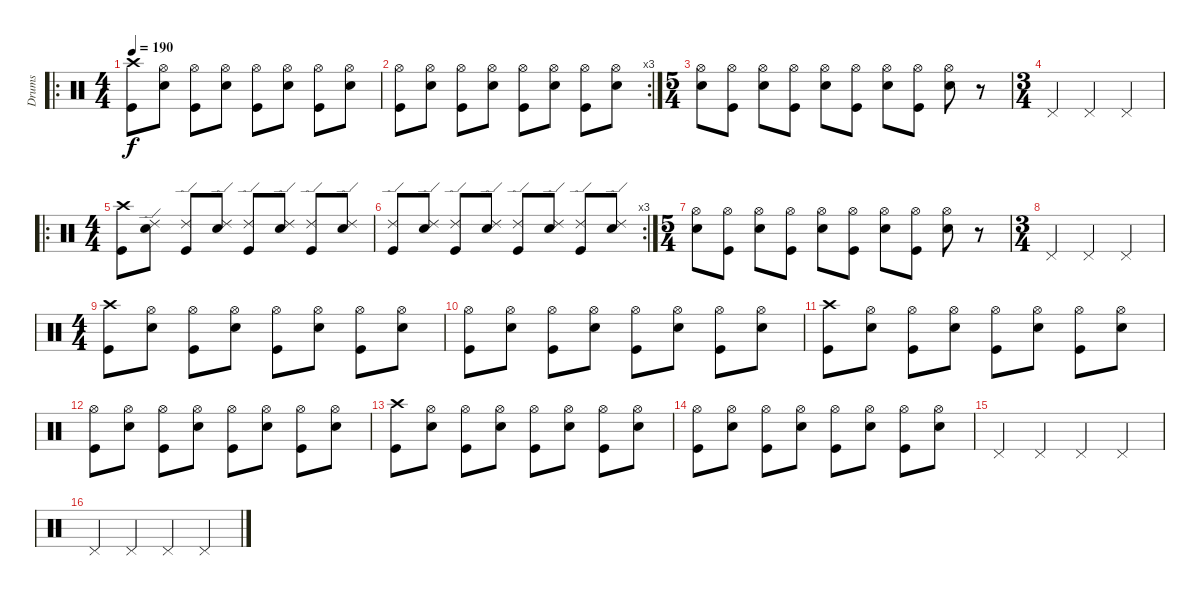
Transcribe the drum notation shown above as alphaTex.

\track ("Drums" "Drums") {instrument percussion}
\staff {score}
\articulation defaults
\ro
\ts (4 4)
\tempo 190
\clef neutral
\ks c
("Crash high (hit)" "Kick (hit)").8{dy f} ("Hi-Hat (open)" "Electric Snare (hit)").8 ("Hi-Hat (open)" "Kick (hit)").8 ("Hi-Hat (open)" "Electric Snare (hit)").8 ("Hi-Hat (open)" "Kick (hit)").8 ("Hi-Hat (open)" "Electric Snare (hit)").8 ("Hi-Hat (open)" "Kick (hit)").8 ("Hi-Hat (open)" "Electric Snare (hit)").8 |
\rc 3
("Hi-Hat (open)" "Kick (hit)").8 ("Hi-Hat (open)" "Electric Snare (hit)").8 ("Hi-Hat (open)" "Kick (hit)").8 ("Hi-Hat (open)" "Electric Snare (hit)").8 ("Hi-Hat (open)" "Kick (hit)").8 ("Hi-Hat (open)" "Electric Snare (hit)").8 ("Hi-Hat (open)" "Kick (hit)").8 ("Hi-Hat (open)" "Electric Snare (hit)").8 |
\ts (5 4)
("Hi-Hat (open)" "Electric Snare (hit)").8 ("Hi-Hat (open)" "Kick (hit)").8 ("Hi-Hat (open)" "Electric Snare (hit)").8 ("Hi-Hat (open)" "Kick (hit)").8 ("Hi-Hat (open)" "Electric Snare (hit)").8 ("Hi-Hat (open)" "Kick (hit)").8 ("Hi-Hat (open)" "Electric Snare (hit)").8 ("Hi-Hat (open)" "Kick (hit)").8 ("Hi-Hat (open)" "Electric Snare (hit)").8 r.8 |
\ts (3 4)
"Pedal Hi-Hat (hit)".4 "Pedal Hi-Hat (hit)".4 "Pedal Hi-Hat (hit)".4 |
\ro
\ts (4 4)
("Crash high (hit)" "Kick (hit)").8 ("Ride (edge) 2" "Electric Snare (hit)").8 ("Ride (edge) 2" "Kick (hit)").8 ("Ride (edge) 2" "Electric Snare (hit)").8 ("Ride (edge) 2" "Kick (hit)").8 ("Ride (edge) 2" "Electric Snare (hit)").8 ("Ride (edge) 2" "Kick (hit)").8 ("Ride (edge) 2" "Electric Snare (hit)").8 |
\rc 3
("Ride (edge) 2" "Kick (hit)").8 ("Ride (edge) 2" "Electric Snare (hit)").8 ("Ride (edge) 2" "Kick (hit)").8 ("Ride (edge) 2" "Electric Snare (hit)").8 ("Ride (edge) 2" "Kick (hit)").8 ("Ride (edge) 2" "Electric Snare (hit)").8 ("Ride (edge) 2" "Kick (hit)").8 ("Ride (edge) 2" "Electric Snare (hit)").8 |
\ts (5 4)
("Hi-Hat (open)" "Electric Snare (hit)").8 ("Hi-Hat (open)" "Kick (hit)").8 ("Hi-Hat (open)" "Electric Snare (hit)").8 ("Hi-Hat (open)" "Kick (hit)").8 ("Hi-Hat (open)" "Electric Snare (hit)").8 ("Hi-Hat (open)" "Kick (hit)").8 ("Hi-Hat (open)" "Electric Snare (hit)").8 ("Hi-Hat (open)" "Kick (hit)").8 ("Hi-Hat (open)" "Electric Snare (hit)").8 r.8 |
\ts (3 4)
"Pedal Hi-Hat (hit)".4 "Pedal Hi-Hat (hit)".4 "Pedal Hi-Hat (hit)".4 |
\ts (4 4)
("Crash high (hit)" "Kick (hit)").8 ("Hi-Hat (open)" "Electric Snare (hit)").8 ("Hi-Hat (open)" "Kick (hit)").8 ("Hi-Hat (open)" "Electric Snare (hit)").8 ("Hi-Hat (open)" "Kick (hit)").8 ("Hi-Hat (open)" "Electric Snare (hit)").8 ("Hi-Hat (open)" "Kick (hit)").8 ("Hi-Hat (open)" "Electric Snare (hit)").8 |
("Hi-Hat (open)" "Kick (hit)").8 ("Hi-Hat (open)" "Electric Snare (hit)").8 ("Hi-Hat (open)" "Kick (hit)").8 ("Hi-Hat (open)" "Electric Snare (hit)").8 ("Hi-Hat (open)" "Kick (hit)").8 ("Hi-Hat (open)" "Electric Snare (hit)").8 ("Hi-Hat (open)" "Kick (hit)").8 ("Hi-Hat (open)" "Electric Snare (hit)").8 |
("Crash high (hit)" "Kick (hit)").8 ("Hi-Hat (open)" "Electric Snare (hit)").8 ("Hi-Hat (open)" "Kick (hit)").8 ("Hi-Hat (open)" "Electric Snare (hit)").8 ("Hi-Hat (open)" "Kick (hit)").8 ("Hi-Hat (open)" "Electric Snare (hit)").8 ("Hi-Hat (open)" "Kick (hit)").8 ("Hi-Hat (open)" "Electric Snare (hit)").8 |
("Hi-Hat (open)" "Kick (hit)").8 ("Hi-Hat (open)" "Electric Snare (hit)").8 ("Hi-Hat (open)" "Kick (hit)").8 ("Hi-Hat (open)" "Electric Snare (hit)").8 ("Hi-Hat (open)" "Kick (hit)").8 ("Hi-Hat (open)" "Electric Snare (hit)").8 ("Hi-Hat (open)" "Kick (hit)").8 ("Hi-Hat (open)" "Electric Snare (hit)").8 |
("Crash high (hit)" "Kick (hit)").8 ("Hi-Hat (open)" "Electric Snare (hit)").8 ("Hi-Hat (open)" "Kick (hit)").8 ("Hi-Hat (open)" "Electric Snare (hit)").8 ("Hi-Hat (open)" "Kick (hit)").8 ("Hi-Hat (open)" "Electric Snare (hit)").8 ("Hi-Hat (open)" "Kick (hit)").8 ("Hi-Hat (open)" "Electric Snare (hit)").8 |
("Hi-Hat (open)" "Kick (hit)").8 ("Hi-Hat (open)" "Electric Snare (hit)").8 ("Hi-Hat (open)" "Kick (hit)").8 ("Hi-Hat (open)" "Electric Snare (hit)").8 ("Hi-Hat (open)" "Kick (hit)").8 ("Hi-Hat (open)" "Electric Snare (hit)").8 ("Hi-Hat (open)" "Kick (hit)").8 ("Hi-Hat (open)" "Electric Snare (hit)").8 |
"Pedal Hi-Hat (hit)".4 "Pedal Hi-Hat (hit)".4 "Pedal Hi-Hat (hit)".4 "Pedal Hi-Hat (hit)".4 |
"Pedal Hi-Hat (hit)".4 "Pedal Hi-Hat (hit)".4 "Pedal Hi-Hat (hit)".4 "Pedal Hi-Hat (hit)".4
